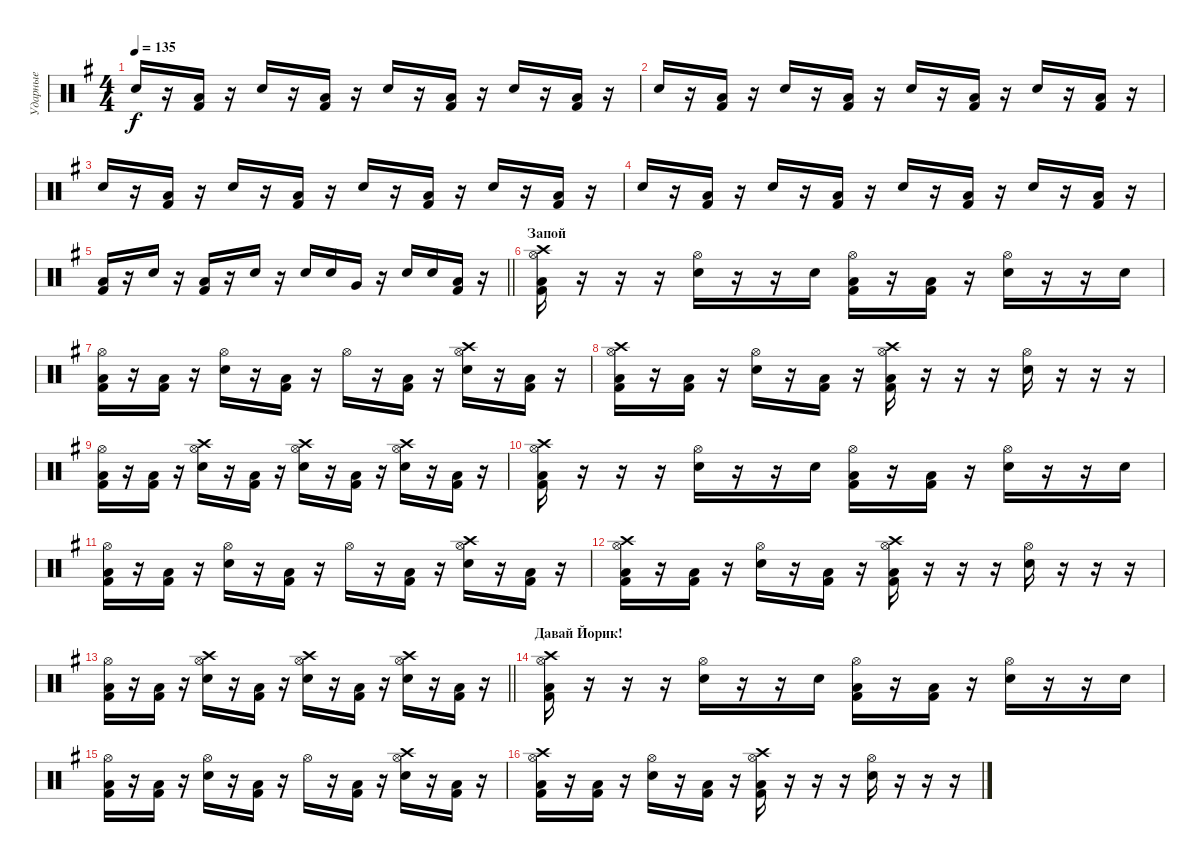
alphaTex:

\track ("Ударные" "Ударные") {instrument percussion}
\staff {score}
\articulation defaults
\ts (4 4)
\tempo 135
\clef neutral
\ks eminor "Electric Snare (hit)".16{dy f}
r.16 ("Low Floor Tom (hit)" "Kick (hit) 2").16 r.16 "Electric Snare (hit)".16 r.16 ("Low Floor Tom (hit)" "Kick (hit) 2").16 r.16 "Electric Snare (hit)".16 r.16 ("Low Floor Tom (hit)" "Kick (hit) 2").16 r.16 "Electric Snare (hit)".16 r.16 ("Low Floor Tom (hit)" "Kick (hit) 2").16 r.16 |
"Electric Snare (hit)".16 r.16 ("Low Floor Tom (hit)" "Kick (hit) 2").16 r.16 "Electric Snare (hit)".16 r.16 ("Low Floor Tom (hit)" "Kick (hit) 2").16 r.16 "Electric Snare (hit)".16 r.16 ("Low Floor Tom (hit)" "Kick (hit) 2").16 r.16 "Electric Snare (hit)".16 r.16 ("Low Floor Tom (hit)" "Kick (hit) 2").16 r.16 |
"Electric Snare (hit)".16 r.16 ("Low Floor Tom (hit)" "Kick (hit) 2").16 r.16 "Electric Snare (hit)".16 r.16 ("Low Floor Tom (hit)" "Kick (hit) 2").16 r.16 "Electric Snare (hit)".16 r.16 ("Low Floor Tom (hit)" "Kick (hit) 2").16 r.16 "Electric Snare (hit)".16 r.16 ("Low Floor Tom (hit)" "Kick (hit) 2").16 r.16 |
"Electric Snare (hit)".16 r.16 ("Low Floor Tom (hit)" "Kick (hit) 2").16 r.16 "Electric Snare (hit)".16 r.16 ("Low Floor Tom (hit)" "Kick (hit) 2").16 r.16 "Electric Snare (hit)".16 r.16 ("Low Floor Tom (hit)" "Kick (hit) 2").16 r.16 "Electric Snare (hit)".16 r.16 ("Low Floor Tom (hit)" "Kick (hit) 2").16 r.16 |
\barLineRight lightlight
("Low Floor Tom (hit)" "Kick (hit) 2").16 r.16 "Electric Snare (hit)".16 r.16 ("Low Floor Tom (hit)" "Kick (hit) 2").16 r.16 "Electric Snare (hit)".16 r.16 "Electric Snare (hit)".16 "Electric Snare (hit)".16 "Very Low Tom (hit)".16 r.16 "Electric Snare (hit)".16 "Electric Snare (hit)".16 ("Low Floor Tom (hit)" "Kick (hit) 2").16 r.16 |
\section ("" "Запой")
("Crash high (hit)" "Hi-Hat (open)" "Low Floor Tom (hit)" "Kick (hit) 2").16 r.16 r.16 r.16 ("Hi-Hat (open)" "Electric Snare (hit)").16 r.16 r.16 "Electric Snare (hit)".16 ("Hi-Hat (open)" "Low Floor Tom (hit)" "Kick (hit) 2").16 r.16 ("Low Floor Tom (hit)" "Kick (hit) 2").16 r.16 ("Hi-Hat (open)" "Electric Snare (hit)").16 r.16 r.16 "Electric Snare (hit)".16 |
("Hi-Hat (open)" "Low Floor Tom (hit)" "Kick (hit) 2").16 r.16 ("Low Floor Tom (hit)" "Kick (hit) 2").16 r.16 ("Hi-Hat (open)" "Electric Snare (hit)").16 r.16 ("Low Floor Tom (hit)" "Kick (hit) 2").16 r.16 "Hi-Hat (open)".16 r.16 ("Low Floor Tom (hit)" "Kick (hit) 2").16 r.16 ("Crash high (hit)" "Hi-Hat (open)" "Electric Snare (hit)").16 r.16 ("Low Floor Tom (hit)" "Kick (hit) 2").16 r.16 |
("Crash high (hit)" "Hi-Hat (open)" "Low Floor Tom (hit)" "Kick (hit) 2").16 r.16 ("Low Floor Tom (hit)" "Kick (hit) 2").16 r.16 ("Hi-Hat (open)" "Electric Snare (hit)").16 r.16 ("Low Floor Tom (hit)" "Kick (hit) 2").16 r.16 ("Crash high (hit)" "Hi-Hat (open)" "Low Floor Tom (hit)" "Kick (hit) 2").16 r.16 r.16 r.16 ("Hi-Hat (open)" "Electric Snare (hit)").16 r.16 r.16 r.16 |
("Hi-Hat (open)" "Low Floor Tom (hit)" "Kick (hit) 2").16 r.16 ("Low Floor Tom (hit)" "Kick (hit) 2").16 r.16 ("Crash high (hit)" "Hi-Hat (open)" "Electric Snare (hit)").16 r.16 ("Low Floor Tom (hit)" "Kick (hit) 2").16 r.16 ("Crash high (hit)" "Hi-Hat (open)" "Electric Snare (hit)").16 r.16 ("Low Floor Tom (hit)" "Kick (hit) 2").16 r.16 ("Crash high (hit)" "Hi-Hat (open)" "Electric Snare (hit)").16 r.16 ("Low Floor Tom (hit)" "Kick (hit) 2").16 r.16 |
("Crash high (hit)" "Hi-Hat (open)" "Low Floor Tom (hit)" "Kick (hit) 2").16 r.16 r.16 r.16 ("Hi-Hat (open)" "Electric Snare (hit)").16 r.16 r.16 "Electric Snare (hit)".16 ("Hi-Hat (open)" "Low Floor Tom (hit)" "Kick (hit) 2").16 r.16 ("Low Floor Tom (hit)" "Kick (hit) 2").16 r.16 ("Hi-Hat (open)" "Electric Snare (hit)").16 r.16 r.16 "Electric Snare (hit)".16 |
("Hi-Hat (open)" "Low Floor Tom (hit)" "Kick (hit) 2").16 r.16 ("Low Floor Tom (hit)" "Kick (hit) 2").16 r.16 ("Hi-Hat (open)" "Electric Snare (hit)").16 r.16 ("Low Floor Tom (hit)" "Kick (hit) 2").16 r.16 "Hi-Hat (open)".16 r.16 ("Low Floor Tom (hit)" "Kick (hit) 2").16 r.16 ("Crash high (hit)" "Hi-Hat (open)" "Electric Snare (hit)").16 r.16 ("Low Floor Tom (hit)" "Kick (hit) 2").16 r.16 |
("Crash high (hit)" "Hi-Hat (open)" "Low Floor Tom (hit)" "Kick (hit) 2").16 r.16 ("Low Floor Tom (hit)" "Kick (hit) 2").16 r.16 ("Hi-Hat (open)" "Electric Snare (hit)").16 r.16 ("Low Floor Tom (hit)" "Kick (hit) 2").16 r.16 ("Crash high (hit)" "Hi-Hat (open)" "Low Floor Tom (hit)" "Kick (hit) 2").16 r.16 r.16 r.16 ("Hi-Hat (open)" "Electric Snare (hit)").16 r.16 r.16 r.16 |
\barLineRight lightlight
("Hi-Hat (open)" "Low Floor Tom (hit)" "Kick (hit) 2").16 r.16 ("Low Floor Tom (hit)" "Kick (hit) 2").16 r.16 ("Crash high (hit)" "Hi-Hat (open)" "Electric Snare (hit)").16 r.16 ("Low Floor Tom (hit)" "Kick (hit) 2").16 r.16 ("Crash high (hit)" "Hi-Hat (open)" "Electric Snare (hit)").16 r.16 ("Low Floor Tom (hit)" "Kick (hit) 2").16 r.16 ("Crash high (hit)" "Hi-Hat (open)" "Electric Snare (hit)").16 r.16 ("Low Floor Tom (hit)" "Kick (hit) 2").16 r.16 |
\section ("" "Давай Йорик!")
("Crash high (hit)" "Hi-Hat (open)" "Low Floor Tom (hit)" "Kick (hit) 2").16 r.16 r.16 r.16 ("Hi-Hat (open)" "Electric Snare (hit)").16 r.16 r.16 "Electric Snare (hit)".16 ("Hi-Hat (open)" "Low Floor Tom (hit)" "Kick (hit) 2").16 r.16 ("Low Floor Tom (hit)" "Kick (hit) 2").16 r.16 ("Hi-Hat (open)" "Electric Snare (hit)").16 r.16 r.16 "Electric Snare (hit)".16 |
("Hi-Hat (open)" "Low Floor Tom (hit)" "Kick (hit) 2").16 r.16 ("Low Floor Tom (hit)" "Kick (hit) 2").16 r.16 ("Hi-Hat (open)" "Electric Snare (hit)").16 r.16 ("Low Floor Tom (hit)" "Kick (hit) 2").16 r.16 "Hi-Hat (open)".16 r.16 ("Low Floor Tom (hit)" "Kick (hit) 2").16 r.16 ("Crash high (hit)" "Hi-Hat (open)" "Electric Snare (hit)").16 r.16 ("Low Floor Tom (hit)" "Kick (hit) 2").16 r.16 |
("Crash high (hit)" "Hi-Hat (open)" "Low Floor Tom (hit)" "Kick (hit) 2").16 r.16 ("Low Floor Tom (hit)" "Kick (hit) 2").16 r.16 ("Hi-Hat (open)" "Electric Snare (hit)").16 r.16 ("Low Floor Tom (hit)" "Kick (hit) 2").16 r.16 ("Crash high (hit)" "Hi-Hat (open)" "Low Floor Tom (hit)" "Kick (hit) 2").16 r.16 r.16 r.16 ("Hi-Hat (open)" "Electric Snare (hit)").16 r.16 r.16 r.16
